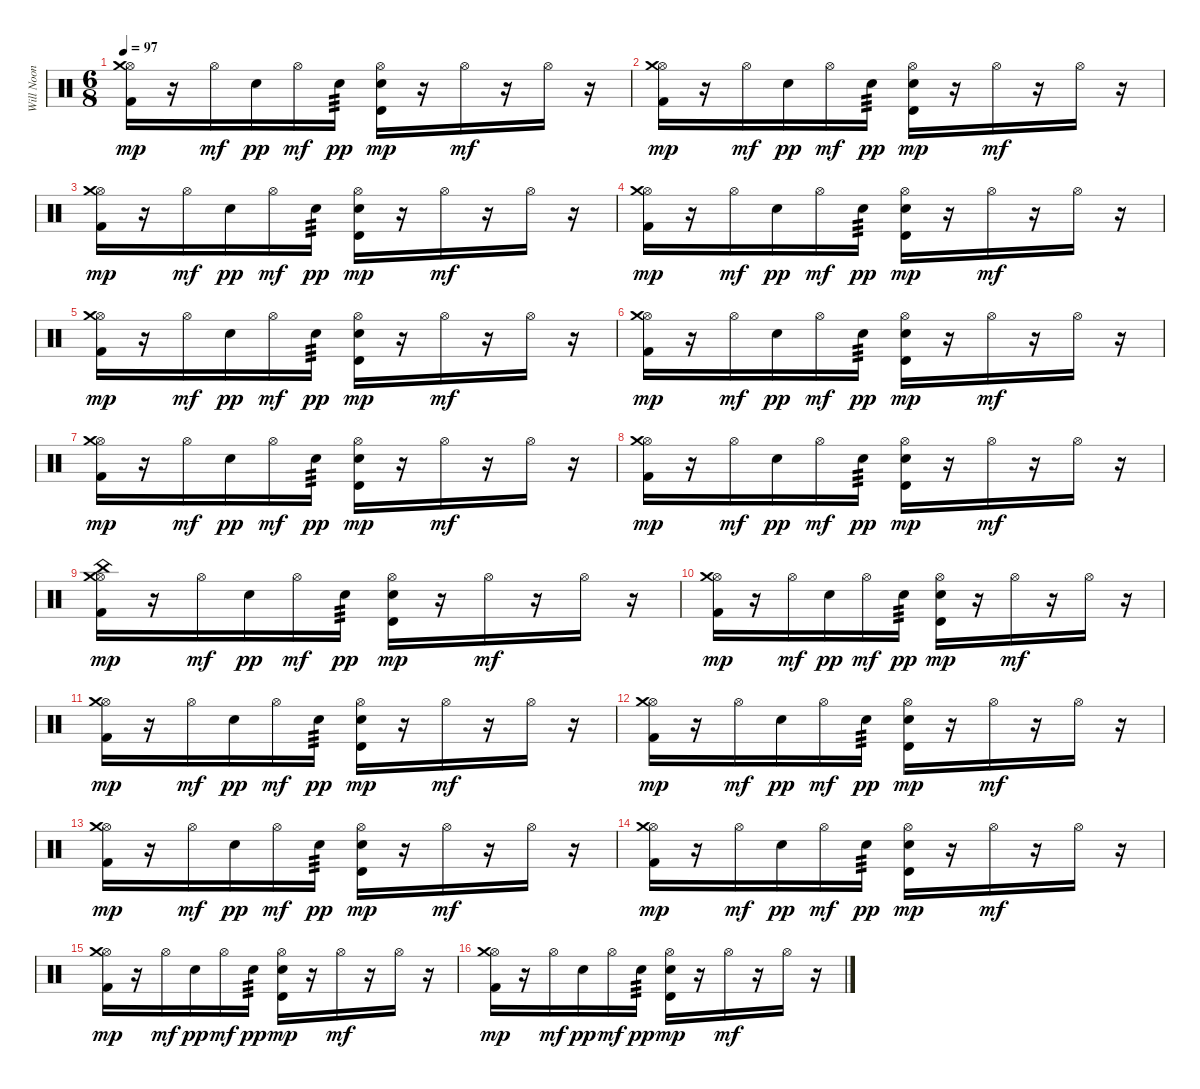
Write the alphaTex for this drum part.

\track ("Will Noon" "Will Noon") {instrument percussion}
\staff {score}
\articulation defaults
\ts (6 8)
\tempo 97
\clef neutral
\ks c
("Hi-Hat (open)" "Crash medium (hit)" "Kick (hit) 2").16{dy mp} r.16 "Hi-Hat (open)".16{dy mf} "Electric Snare (hit)".16{dy pp} "Hi-Hat (open)".16{dy mf} "Electric Snare (hit)".16{tp 3 dy pp} ("Hi-Hat (open)" "Timbale high (hit)" "Electric Snare (hit)").16{dy mp} r.16 "Hi-Hat (open)".16{dy mf} r.16 "Hi-Hat (open)".16 r.16 |
("Hi-Hat (open)" "Crash medium (hit)" "Kick (hit) 2").16{dy mp} r.16 "Hi-Hat (open)".16{dy mf} "Electric Snare (hit)".16{dy pp} "Hi-Hat (open)".16{dy mf} "Electric Snare (hit)".16{tp 3 dy pp} ("Hi-Hat (open)" "Timbale high (hit)" "Electric Snare (hit)").16{dy mp} r.16 "Hi-Hat (open)".16{dy mf} r.16 "Hi-Hat (open)".16 r.16 |
("Hi-Hat (open)" "Crash medium (hit)" "Kick (hit) 2").16{dy mp} r.16 "Hi-Hat (open)".16{dy mf} "Electric Snare (hit)".16{dy pp} "Hi-Hat (open)".16{dy mf} "Electric Snare (hit)".16{tp 3 dy pp} ("Hi-Hat (open)" "Timbale high (hit)" "Electric Snare (hit)").16{dy mp} r.16 "Hi-Hat (open)".16{dy mf} r.16 "Hi-Hat (open)".16 r.16 |
("Hi-Hat (open)" "Crash medium (hit)" "Kick (hit) 2").16{dy mp} r.16 "Hi-Hat (open)".16{dy mf} "Electric Snare (hit)".16{dy pp} "Hi-Hat (open)".16{dy mf} "Electric Snare (hit)".16{tp 3 dy pp} ("Hi-Hat (open)" "Timbale high (hit)" "Electric Snare (hit)").16{dy mp} r.16 "Hi-Hat (open)".16{dy mf} r.16 "Hi-Hat (open)".16 r.16 |
("Hi-Hat (open)" "Crash medium (hit)" "Kick (hit) 2").16{dy mp} r.16 "Hi-Hat (open)".16{dy mf} "Electric Snare (hit)".16{dy pp} "Hi-Hat (open)".16{dy mf} "Electric Snare (hit)".16{tp 3 dy pp} ("Hi-Hat (open)" "Timbale high (hit)" "Electric Snare (hit)").16{dy mp} r.16 "Hi-Hat (open)".16{dy mf} r.16 "Hi-Hat (open)".16 r.16 |
("Hi-Hat (open)" "Crash medium (hit)" "Kick (hit) 2").16{dy mp} r.16 "Hi-Hat (open)".16{dy mf} "Electric Snare (hit)".16{dy pp} "Hi-Hat (open)".16{dy mf} "Electric Snare (hit)".16{tp 3 dy pp} ("Hi-Hat (open)" "Timbale high (hit)" "Electric Snare (hit)").16{dy mp} r.16 "Hi-Hat (open)".16{dy mf} r.16 "Hi-Hat (open)".16 r.16 |
("Hi-Hat (open)" "Crash medium (hit)" "Kick (hit) 2").16{dy mp} r.16 "Hi-Hat (open)".16{dy mf} "Electric Snare (hit)".16{dy pp} "Hi-Hat (open)".16{dy mf} "Electric Snare (hit)".16{tp 3 dy pp} ("Hi-Hat (open)" "Timbale high (hit)" "Electric Snare (hit)").16{dy mp} r.16 "Hi-Hat (open)".16{dy mf} r.16 "Hi-Hat (open)".16 r.16 |
("Hi-Hat (open)" "Crash medium (hit)" "Kick (hit) 2").16{dy mp} r.16 "Hi-Hat (open)".16{dy mf} "Electric Snare (hit)".16{dy pp} "Hi-Hat (open)".16{dy mf} "Electric Snare (hit)".16{tp 3 dy pp} ("Hi-Hat (open)" "Timbale high (hit)" "Electric Snare (hit)").16{dy mp} r.16 "Hi-Hat (open)".16{dy mf} r.16 "Hi-Hat (open)".16 r.16 |
("Hi-Hat (open)" "Crash medium (hit)" "China (hit)" "Kick (hit) 2").16{dy mp} r.16 "Hi-Hat (open)".16{dy mf} "Electric Snare (hit)".16{dy pp} "Hi-Hat (open)".16{dy mf} "Electric Snare (hit)".16{tp 3 dy pp} ("Hi-Hat (open)" "Timbale high (hit)" "Electric Snare (hit)").16{dy mp} r.16 "Hi-Hat (open)".16{dy mf} r.16 "Hi-Hat (open)".16 r.16 |
("Hi-Hat (open)" "Crash medium (hit)" "Kick (hit) 2").16{dy mp} r.16 "Hi-Hat (open)".16{dy mf} "Electric Snare (hit)".16{dy pp} "Hi-Hat (open)".16{dy mf} "Electric Snare (hit)".16{tp 3 dy pp} ("Hi-Hat (open)" "Timbale high (hit)" "Electric Snare (hit)").16{dy mp} r.16 "Hi-Hat (open)".16{dy mf} r.16 "Hi-Hat (open)".16 r.16 |
("Hi-Hat (open)" "Crash medium (hit)" "Kick (hit) 2").16{dy mp} r.16 "Hi-Hat (open)".16{dy mf} "Electric Snare (hit)".16{dy pp} "Hi-Hat (open)".16{dy mf} "Electric Snare (hit)".16{tp 3 dy pp} ("Hi-Hat (open)" "Timbale high (hit)" "Electric Snare (hit)").16{dy mp} r.16 "Hi-Hat (open)".16{dy mf} r.16 "Hi-Hat (open)".16 r.16 |
("Hi-Hat (open)" "Crash medium (hit)" "Kick (hit) 2").16{dy mp} r.16 "Hi-Hat (open)".16{dy mf} "Electric Snare (hit)".16{dy pp} "Hi-Hat (open)".16{dy mf} "Electric Snare (hit)".16{tp 3 dy pp} ("Hi-Hat (open)" "Timbale high (hit)" "Electric Snare (hit)").16{dy mp} r.16 "Hi-Hat (open)".16{dy mf} r.16 "Hi-Hat (open)".16 r.16 |
("Hi-Hat (open)" "Crash medium (hit)" "Kick (hit) 2").16{dy mp} r.16 "Hi-Hat (open)".16{dy mf} "Electric Snare (hit)".16{dy pp} "Hi-Hat (open)".16{dy mf} "Electric Snare (hit)".16{tp 3 dy pp} ("Hi-Hat (open)" "Timbale high (hit)" "Electric Snare (hit)").16{dy mp} r.16 "Hi-Hat (open)".16{dy mf} r.16 "Hi-Hat (open)".16 r.16 |
("Hi-Hat (open)" "Crash medium (hit)" "Kick (hit) 2").16{dy mp} r.16 "Hi-Hat (open)".16{dy mf} "Electric Snare (hit)".16{dy pp} "Hi-Hat (open)".16{dy mf} "Electric Snare (hit)".16{tp 3 dy pp} ("Hi-Hat (open)" "Timbale high (hit)" "Electric Snare (hit)").16{dy mp} r.16 "Hi-Hat (open)".16{dy mf} r.16 "Hi-Hat (open)".16 r.16 |
("Hi-Hat (open)" "Crash medium (hit)" "Kick (hit) 2").16{dy mp} r.16 "Hi-Hat (open)".16{dy mf} "Electric Snare (hit)".16{dy pp} "Hi-Hat (open)".16{dy mf} "Electric Snare (hit)".16{tp 3 dy pp} ("Hi-Hat (open)" "Timbale high (hit)" "Electric Snare (hit)").16{dy mp} r.16 "Hi-Hat (open)".16{dy mf} r.16 "Hi-Hat (open)".16 r.16 |
("Hi-Hat (open)" "Crash medium (hit)" "Kick (hit) 2").16{dy mp} r.16 "Hi-Hat (open)".16{dy mf} "Electric Snare (hit)".16{dy pp} "Hi-Hat (open)".16{dy mf} "Electric Snare (hit)".16{tp 3 dy pp} ("Hi-Hat (open)" "Timbale high (hit)" "Electric Snare (hit)").16{dy mp} r.16 "Hi-Hat (open)".16{dy mf} r.16 "Hi-Hat (open)".16 r.16
